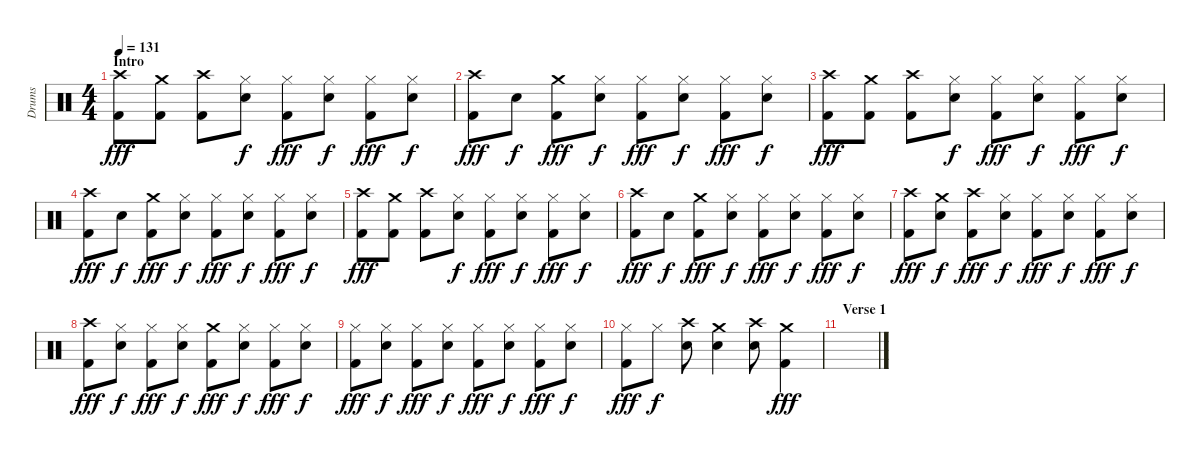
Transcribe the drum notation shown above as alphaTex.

\track ("Drums" "Drums") {instrument percussion}
\staff {score}
\articulation defaults
\ts (4 4)
\section ("" "Intro")
\tempo 131
\clef neutral
\ks c
("Crash high (hit)" "Kick (hit) 2").8{dy fff} ("Crash medium (hit)" "Kick (hit) 2").8 ("Crash high (hit)" "Kick (hit) 2").8 ("Hi-Hat (closed)" "Electric Snare (hit)").8{dy f} ("Hi-Hat (closed)" "Kick (hit) 2").8{dy fff} ("Hi-Hat (closed)" "Electric Snare (hit)").8{dy f} ("Hi-Hat (closed)" "Kick (hit) 2").8{dy fff} ("Hi-Hat (closed)" "Electric Snare (hit)").8{dy f} |
("Crash high (hit)" "Kick (hit) 2").8{dy fff} "Electric Snare (hit)".8{dy f} ("Crash medium (hit)" "Kick (hit) 2").8{dy fff} ("Hi-Hat (closed)" "Electric Snare (hit)").8{dy f} ("Hi-Hat (closed)" "Kick (hit) 2").8{dy fff} ("Hi-Hat (closed)" "Electric Snare (hit)").8{dy f} ("Hi-Hat (closed)" "Kick (hit) 2").8{dy fff} ("Hi-Hat (closed)" "Electric Snare (hit)").8{dy f} |
("Crash high (hit)" "Kick (hit) 2").8{dy fff} ("Crash medium (hit)" "Kick (hit) 2").8 ("Crash high (hit)" "Kick (hit) 2").8 ("Hi-Hat (closed)" "Electric Snare (hit)").8{dy f} ("Hi-Hat (closed)" "Kick (hit) 2").8{dy fff} ("Hi-Hat (closed)" "Electric Snare (hit)").8{dy f} ("Hi-Hat (closed)" "Kick (hit) 2").8{dy fff} ("Hi-Hat (closed)" "Electric Snare (hit)").8{dy f} |
("Crash high (hit)" "Kick (hit) 2").8{dy fff} "Electric Snare (hit)".8{dy f} ("Crash medium (hit)" "Kick (hit) 2").8{dy fff} ("Hi-Hat (closed)" "Electric Snare (hit)").8{dy f} ("Hi-Hat (closed)" "Kick (hit) 2").8{dy fff} ("Hi-Hat (closed)" "Electric Snare (hit)").8{dy f} ("Hi-Hat (closed)" "Kick (hit) 2").8{dy fff} ("Hi-Hat (closed)" "Electric Snare (hit)").8{dy f} |
("Crash high (hit)" "Kick (hit) 2").8{dy fff} ("Crash medium (hit)" "Kick (hit) 2").8 ("Crash high (hit)" "Kick (hit) 2").8 ("Hi-Hat (closed)" "Electric Snare (hit)").8{dy f} ("Hi-Hat (closed)" "Kick (hit) 2").8{dy fff} ("Hi-Hat (closed)" "Electric Snare (hit)").8{dy f} ("Hi-Hat (closed)" "Kick (hit) 2").8{dy fff} ("Hi-Hat (closed)" "Electric Snare (hit)").8{dy f} |
("Crash high (hit)" "Kick (hit) 2").8{dy fff} "Electric Snare (hit)".8{dy f} ("Crash medium (hit)" "Kick (hit) 2").8{dy fff} ("Hi-Hat (closed)" "Electric Snare (hit)").8{dy f} ("Hi-Hat (closed)" "Kick (hit) 2").8{dy fff} ("Hi-Hat (closed)" "Electric Snare (hit)").8{dy f} ("Hi-Hat (closed)" "Kick (hit) 2").8{dy fff} ("Hi-Hat (closed)" "Electric Snare (hit)").8{dy f} |
("Crash high (hit)" "Kick (hit) 2").8{dy fff} ("Crash medium (hit)" "Electric Snare (hit)").8{dy f} ("Crash high (hit)" "Kick (hit) 2").8{dy fff} ("Hi-Hat (closed)" "Electric Snare (hit)").8{dy f} ("Hi-Hat (closed)" "Kick (hit) 2").8{dy fff} ("Hi-Hat (closed)" "Electric Snare (hit)").8{dy f} ("Hi-Hat (closed)" "Kick (hit) 2").8{dy fff} ("Hi-Hat (closed)" "Electric Snare (hit)").8{dy f} |
("Crash high (hit)" "Kick (hit) 2").8{dy fff} ("Hi-Hat (closed)" "Electric Snare (hit)").8{dy f} ("Hi-Hat (closed)" "Kick (hit) 2").8{dy fff} ("Hi-Hat (closed)" "Electric Snare (hit)").8{dy f} ("Crash medium (hit)" "Kick (hit) 2").8{dy fff} ("Hi-Hat (closed)" "Electric Snare (hit)").8{dy f} ("Hi-Hat (closed)" "Kick (hit) 2").8{dy fff} ("Hi-Hat (closed)" "Electric Snare (hit)").8{dy f} |
("Hi-Hat (closed)" "Kick (hit) 2").8{dy fff} ("Hi-Hat (closed)" "Electric Snare (hit)").8{dy f} ("Hi-Hat (closed)" "Kick (hit) 2").8{dy fff} ("Hi-Hat (closed)" "Electric Snare (hit)").8{dy f} ("Hi-Hat (closed)" "Kick (hit) 2").8{dy fff} ("Hi-Hat (closed)" "Electric Snare (hit)").8{dy f} ("Hi-Hat (closed)" "Kick (hit) 2").8{dy fff} ("Hi-Hat (closed)" "Electric Snare (hit)").8{dy f} |
("Hi-Hat (closed)" "Kick (hit) 2").8{dy fff} "Hi-Hat (closed)".8{dy f} ("Crash high (hit)" "Electric Snare (hit)").8 ("Crash medium (hit)" "Electric Snare (hit)").4 ("Crash high (hit)" "Electric Snare (hit)").8 ("Crash medium (hit)" "Kick (hit) 2").4{dy fff} |
\section ("" "Verse 1")
